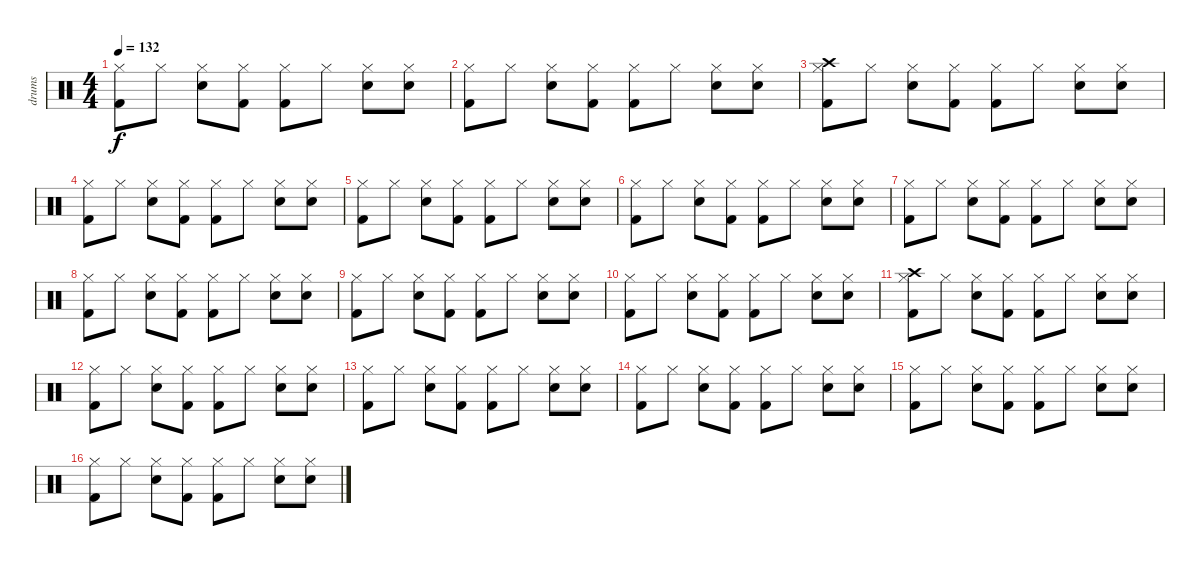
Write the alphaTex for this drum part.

\track ("drums" "drums") {instrument percussion}
\staff {score}
\articulation defaults
\ts (4 4)
\tempo 132
\clef neutral
\ks c
("Hi-Hat (closed)" "Kick (hit) 2").8{dy f} "Hi-Hat (closed)".8 ("Hi-Hat (closed)" "Snare (hit) 2").8 ("Hi-Hat (closed)" "Kick (hit) 2").8 ("Hi-Hat (closed)" "Kick (hit) 2").8 "Hi-Hat (closed)".8 ("Hi-Hat (closed)" "Snare (hit) 2").8 ("Hi-Hat (closed)" "Snare (hit) 2").8 |
("Hi-Hat (closed)" "Kick (hit) 2").8 "Hi-Hat (closed)".8 ("Hi-Hat (closed)" "Snare (hit) 2").8 ("Hi-Hat (closed)" "Kick (hit) 2").8 ("Hi-Hat (closed)" "Kick (hit) 2").8 "Hi-Hat (closed)".8 ("Hi-Hat (closed)" "Snare (hit) 2").8 ("Hi-Hat (closed)" "Snare (hit) 2").8 |
("Hi-Hat (closed)" "Crash high (hit)" "Kick (hit) 2").8 "Hi-Hat (closed)".8 ("Hi-Hat (closed)" "Snare (hit) 2").8 ("Hi-Hat (closed)" "Kick (hit) 2").8 ("Hi-Hat (closed)" "Kick (hit) 2").8 "Hi-Hat (closed)".8 ("Hi-Hat (closed)" "Snare (hit) 2").8 ("Hi-Hat (closed)" "Snare (hit) 2").8 |
("Hi-Hat (closed)" "Kick (hit) 2").8 "Hi-Hat (closed)".8 ("Hi-Hat (closed)" "Snare (hit) 2").8 ("Hi-Hat (closed)" "Kick (hit) 2").8 ("Hi-Hat (closed)" "Kick (hit) 2").8 "Hi-Hat (closed)".8 ("Hi-Hat (closed)" "Snare (hit) 2").8 ("Hi-Hat (closed)" "Snare (hit) 2").8 |
("Hi-Hat (closed)" "Kick (hit) 2").8 "Hi-Hat (closed)".8 ("Hi-Hat (closed)" "Snare (hit) 2").8 ("Hi-Hat (closed)" "Kick (hit) 2").8 ("Hi-Hat (closed)" "Kick (hit) 2").8 "Hi-Hat (closed)".8 ("Hi-Hat (closed)" "Snare (hit) 2").8 ("Hi-Hat (closed)" "Snare (hit) 2").8 |
("Hi-Hat (closed)" "Kick (hit) 2").8 "Hi-Hat (closed)".8 ("Hi-Hat (closed)" "Snare (hit) 2").8 ("Hi-Hat (closed)" "Kick (hit) 2").8 ("Hi-Hat (closed)" "Kick (hit) 2").8 "Hi-Hat (closed)".8 ("Hi-Hat (closed)" "Snare (hit) 2").8 ("Hi-Hat (closed)" "Snare (hit) 2").8 |
("Hi-Hat (closed)" "Kick (hit) 2").8 "Hi-Hat (closed)".8 ("Hi-Hat (closed)" "Snare (hit) 2").8 ("Hi-Hat (closed)" "Kick (hit) 2").8 ("Hi-Hat (closed)" "Kick (hit) 2").8 "Hi-Hat (closed)".8 ("Hi-Hat (closed)" "Snare (hit) 2").8 ("Hi-Hat (closed)" "Snare (hit) 2").8 |
("Hi-Hat (closed)" "Kick (hit) 2").8 "Hi-Hat (closed)".8 ("Hi-Hat (closed)" "Snare (hit) 2").8 ("Hi-Hat (closed)" "Kick (hit) 2").8 ("Hi-Hat (closed)" "Kick (hit) 2").8 "Hi-Hat (closed)".8 ("Hi-Hat (closed)" "Snare (hit) 2").8 ("Hi-Hat (closed)" "Snare (hit) 2").8 |
("Hi-Hat (closed)" "Kick (hit) 2").8 "Hi-Hat (closed)".8 ("Hi-Hat (closed)" "Snare (hit) 2").8 ("Hi-Hat (closed)" "Kick (hit) 2").8 ("Hi-Hat (closed)" "Kick (hit) 2").8 "Hi-Hat (closed)".8 ("Hi-Hat (closed)" "Snare (hit) 2").8 ("Hi-Hat (closed)" "Snare (hit) 2").8 |
("Hi-Hat (closed)" "Kick (hit) 2").8 "Hi-Hat (closed)".8 ("Hi-Hat (closed)" "Snare (hit) 2").8 ("Hi-Hat (closed)" "Kick (hit) 2").8 ("Hi-Hat (closed)" "Kick (hit) 2").8 "Hi-Hat (closed)".8 ("Hi-Hat (closed)" "Snare (hit) 2").8 ("Hi-Hat (closed)" "Snare (hit) 2").8 |
("Hi-Hat (closed)" "Crash high (hit)" "Kick (hit) 2").8 "Hi-Hat (closed)".8 ("Hi-Hat (closed)" "Snare (hit) 2").8 ("Hi-Hat (closed)" "Kick (hit) 2").8 ("Hi-Hat (closed)" "Kick (hit) 2").8 "Hi-Hat (closed)".8 ("Hi-Hat (closed)" "Snare (hit) 2").8 ("Hi-Hat (closed)" "Snare (hit) 2").8 |
("Hi-Hat (closed)" "Kick (hit) 2").8 "Hi-Hat (closed)".8 ("Hi-Hat (closed)" "Snare (hit) 2").8 ("Hi-Hat (closed)" "Kick (hit) 2").8 ("Hi-Hat (closed)" "Kick (hit) 2").8 "Hi-Hat (closed)".8 ("Hi-Hat (closed)" "Snare (hit) 2").8 ("Hi-Hat (closed)" "Snare (hit) 2").8 |
("Hi-Hat (closed)" "Kick (hit) 2").8 "Hi-Hat (closed)".8 ("Hi-Hat (closed)" "Snare (hit) 2").8 ("Hi-Hat (closed)" "Kick (hit) 2").8 ("Hi-Hat (closed)" "Kick (hit) 2").8 "Hi-Hat (closed)".8 ("Hi-Hat (closed)" "Snare (hit) 2").8 ("Hi-Hat (closed)" "Snare (hit) 2").8 |
("Hi-Hat (closed)" "Kick (hit) 2").8 "Hi-Hat (closed)".8 ("Hi-Hat (closed)" "Snare (hit) 2").8 ("Hi-Hat (closed)" "Kick (hit) 2").8 ("Hi-Hat (closed)" "Kick (hit) 2").8 "Hi-Hat (closed)".8 ("Hi-Hat (closed)" "Snare (hit) 2").8 ("Hi-Hat (closed)" "Snare (hit) 2").8 |
("Hi-Hat (closed)" "Kick (hit) 2").8 "Hi-Hat (closed)".8 ("Hi-Hat (closed)" "Snare (hit) 2").8 ("Hi-Hat (closed)" "Kick (hit) 2").8 ("Hi-Hat (closed)" "Kick (hit) 2").8 "Hi-Hat (closed)".8 ("Hi-Hat (closed)" "Snare (hit) 2").8 ("Hi-Hat (closed)" "Snare (hit) 2").8 |
("Hi-Hat (closed)" "Kick (hit) 2").8 "Hi-Hat (closed)".8 ("Hi-Hat (closed)" "Snare (hit) 2").8 ("Hi-Hat (closed)" "Kick (hit) 2").8 ("Hi-Hat (closed)" "Kick (hit) 2").8 "Hi-Hat (closed)".8 ("Hi-Hat (closed)" "Snare (hit) 2").8 ("Hi-Hat (closed)" "Snare (hit) 2").8
